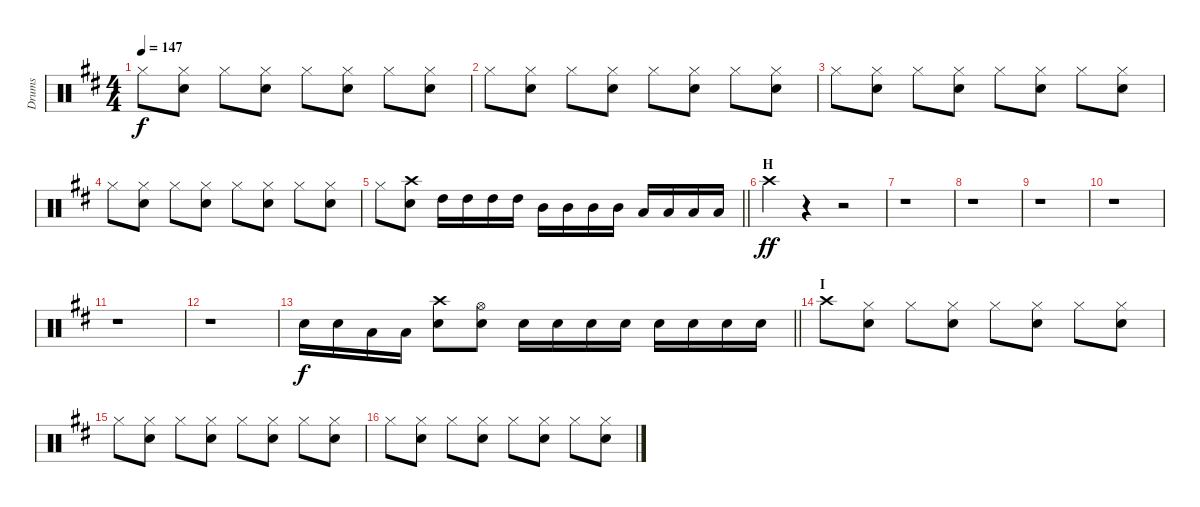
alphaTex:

\track ("Drums" "Drums") {instrument percussion}
\staff {score}
\articulation defaults
\ts (4 4)
\tempo 147
\clef neutral
\ks d "Hi-Hat (closed)".8{dy f}
("Hi-Hat (closed)" "Snare (hit) 2").8 "Hi-Hat (closed)".8 ("Hi-Hat (closed)" "Snare (hit) 2").8 "Hi-Hat (closed)".8 ("Hi-Hat (closed)" "Snare (hit) 2").8 "Hi-Hat (closed)".8 ("Hi-Hat (closed)" "Snare (hit) 2").8 |
"Hi-Hat (closed)".8 ("Hi-Hat (closed)" "Snare (hit) 2").8 "Hi-Hat (closed)".8 ("Hi-Hat (closed)" "Snare (hit) 2").8 "Hi-Hat (closed)".8 ("Hi-Hat (closed)" "Snare (hit) 2").8 "Hi-Hat (closed)".8 ("Hi-Hat (closed)" "Snare (hit) 2").8 |
"Hi-Hat (closed)".8 ("Hi-Hat (closed)" "Snare (hit) 2").8 "Hi-Hat (closed)".8 ("Hi-Hat (closed)" "Snare (hit) 2").8 "Hi-Hat (closed)".8 ("Hi-Hat (closed)" "Snare (hit) 2").8 "Hi-Hat (closed)".8 ("Hi-Hat (closed)" "Snare (hit) 2").8 |
"Hi-Hat (closed)".8 ("Hi-Hat (closed)" "Snare (hit) 2").8 "Hi-Hat (closed)".8 ("Hi-Hat (closed)" "Snare (hit) 2").8 "Hi-Hat (closed)".8 ("Hi-Hat (closed)" "Snare (hit) 2").8 "Hi-Hat (closed)".8 ("Hi-Hat (closed)" "Snare (hit) 2").8 |
\barLineRight lightlight "Hi-Hat (closed)".8
("Crash high (hit)" "Snare (hit) 2").8 "High Tom (hit)".16 "High Tom (hit)".16 "High Tom (hit)".16 "High Tom (hit)".16 "Mid Tom (hit)".16 "Mid Tom (hit)".16 "Mid Tom (hit)".16 "Mid Tom (hit)".16 "Low Tom (hit)".16 "Low Tom (hit)".16 "Low Tom (hit)".16 "Low Tom (hit)".16 |
\section ("" "H")
"Crash high (hit)".4{dy ff} r.4 r.2 |
r.1 |
r.1 |
r.1 |
r.1 |
r.1 |
r.1 |
\barLineRight lightlight "Snare (hit) 2".16{dy f} "Snare (hit) 2".16 "Low Tom (hit)".16 "Low Tom (hit)".16
("Snare (hit) 2" "Crash high (hit)").8 ("Hi-Hat (open)" "Snare (hit) 2").8 "Snare (hit) 2".16 "Snare (hit) 2".16 "Snare (hit) 2".16 "Snare (hit) 2".16 "Snare (hit) 2".16 "Snare (hit) 2".16 "Snare (hit) 2".16 "Snare (hit) 2".16 |
\section ("" "I")
"Crash high (hit)".8 ("Hi-Hat (closed)" "Snare (hit) 2").8 "Hi-Hat (closed)".8 ("Hi-Hat (closed)" "Snare (hit) 2").8 "Hi-Hat (closed)".8 ("Hi-Hat (closed)" "Snare (hit) 2").8 "Hi-Hat (closed)".8 ("Hi-Hat (closed)" "Snare (hit) 2").8 |
"Hi-Hat (closed)".8 ("Hi-Hat (closed)" "Snare (hit) 2").8 "Hi-Hat (closed)".8 ("Hi-Hat (closed)" "Snare (hit) 2").8 "Hi-Hat (closed)".8 ("Hi-Hat (closed)" "Snare (hit) 2").8 "Hi-Hat (closed)".8 ("Hi-Hat (closed)" "Snare (hit) 2").8 |
"Hi-Hat (closed)".8 ("Hi-Hat (closed)" "Snare (hit) 2").8 "Hi-Hat (closed)".8 ("Hi-Hat (closed)" "Snare (hit) 2").8 "Hi-Hat (closed)".8 ("Hi-Hat (closed)" "Snare (hit) 2").8 "Hi-Hat (closed)".8 ("Hi-Hat (closed)" "Snare (hit) 2").8
